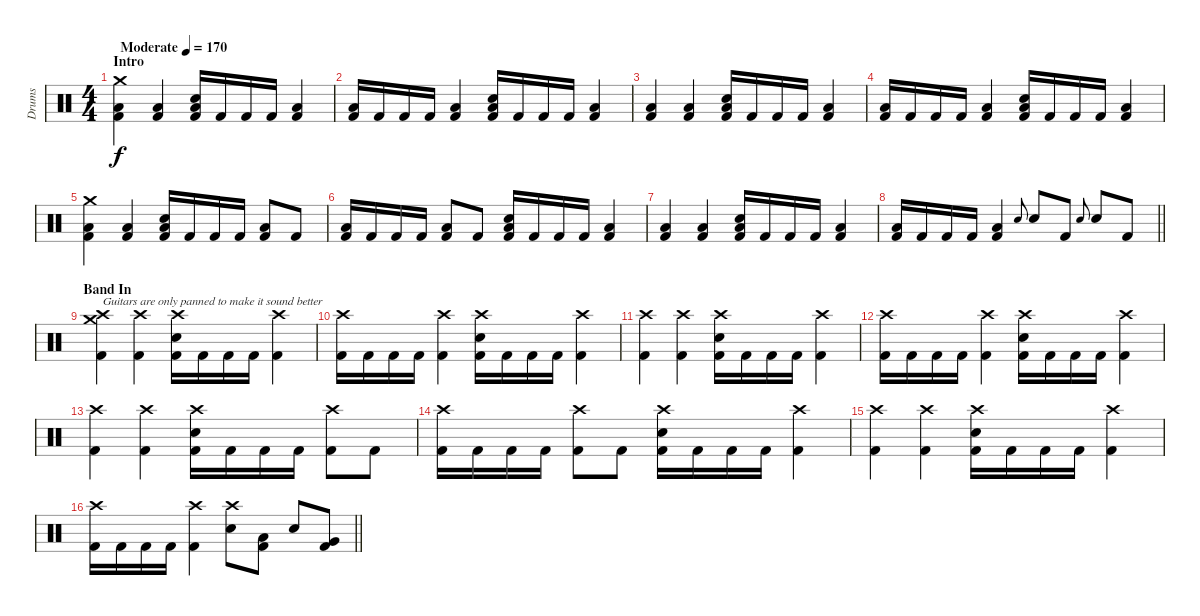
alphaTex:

\track ("Drums" "Drums") {instrument percussion}
\staff {score}
\articulation defaults
\ts (4 4)
\section ("" "Intro")
\tempo (170 "Moderate")
\clef neutral
\ks c
("Crash medium (hit)" "Low Floor Tom (hit)" "Kick (hit) 2").4{dy f} ("Low Floor Tom (hit)" "Kick (hit) 2").4 ("Low Floor Tom (hit)" "Electric Snare (hit)" "Kick (hit) 2").16 "Kick (hit) 2".16 "Kick (hit) 2".16 "Kick (hit) 2".16 ("Low Floor Tom (hit)" "Kick (hit) 2").4 |
("Low Floor Tom (hit)" "Kick (hit) 2").16 "Kick (hit) 2".16 "Kick (hit) 2".16 "Kick (hit) 2".16 ("Low Floor Tom (hit)" "Kick (hit) 2").4 ("Low Floor Tom (hit)" "Electric Snare (hit)" "Kick (hit) 2").16 "Kick (hit) 2".16 "Kick (hit) 2".16 "Kick (hit) 2".16 ("Low Floor Tom (hit)" "Kick (hit) 2").4 |
("Low Floor Tom (hit)" "Kick (hit) 2").4 ("Low Floor Tom (hit)" "Kick (hit) 2").4 ("Low Floor Tom (hit)" "Electric Snare (hit)" "Kick (hit) 2").16 "Kick (hit) 2".16 "Kick (hit) 2".16 "Kick (hit) 2".16 ("Low Floor Tom (hit)" "Kick (hit) 2").4 |
("Low Floor Tom (hit)" "Kick (hit) 2").16 "Kick (hit) 2".16 "Kick (hit) 2".16 "Kick (hit) 2".16 ("Low Floor Tom (hit)" "Kick (hit) 2").4 ("Low Floor Tom (hit)" "Electric Snare (hit)" "Kick (hit) 2").16 "Kick (hit) 2".16 "Kick (hit) 2".16 "Kick (hit) 2".16 ("Low Floor Tom (hit)" "Kick (hit) 2").4 |
("Crash medium (hit)" "Low Floor Tom (hit)" "Kick (hit) 2").4 ("Low Floor Tom (hit)" "Kick (hit) 2").4 ("Low Floor Tom (hit)" "Electric Snare (hit)" "Kick (hit) 2").16 "Kick (hit) 2".16 "Kick (hit) 2".16 "Kick (hit) 2".16 ("Low Floor Tom (hit)" "Kick (hit) 2").8 "Kick (hit) 2".8 |
("Low Floor Tom (hit)" "Kick (hit) 2").16 "Kick (hit) 2".16 "Kick (hit) 2".16 "Kick (hit) 2".16 ("Low Floor Tom (hit)" "Kick (hit) 2").8 "Kick (hit) 2".8 ("Low Floor Tom (hit)" "Electric Snare (hit)" "Kick (hit) 2").16 "Kick (hit) 2".16 "Kick (hit) 2".16 "Kick (hit) 2".16 ("Low Floor Tom (hit)" "Kick (hit) 2").4 |
("Low Floor Tom (hit)" "Kick (hit) 2").4 ("Low Floor Tom (hit)" "Kick (hit) 2").4 ("Low Floor Tom (hit)" "Electric Snare (hit)" "Kick (hit) 2").16 "Kick (hit) 2".16 "Kick (hit) 2".16 "Kick (hit) 2".16 ("Low Floor Tom (hit)" "Kick (hit) 2").4 |
\barLineRight lightlight
("Low Floor Tom (hit)" "Kick (hit) 2").16 "Kick (hit) 2".16 "Kick (hit) 2".16 "Kick (hit) 2".16 ("Low Floor Tom (hit)" "Kick (hit) 2").4 "Electric Snare (hit)".8{gr onbeat} "Electric Snare (hit)".8 "Kick (hit) 2".8 "Electric Snare (hit)".8{gr onbeat} "Electric Snare (hit)".8 "Kick (hit) 2".8 |
\section ("" "Band In")
("Crash high (hit)" "Crash medium (hit)" "Kick (hit) 2").4{txt "Guitars are only panned to make it sound better"} ("Crash high (hit)" "Kick (hit) 2").4 ("Crash high (hit)" "Electric Snare (hit)" "Kick (hit) 2").16 "Kick (hit) 2".16 "Kick (hit) 2".16 "Kick (hit) 2".16 ("Crash high (hit)" "Kick (hit) 2").4 |
("Crash high (hit)" "Kick (hit) 2").16 "Kick (hit) 2".16 "Kick (hit) 2".16 "Kick (hit) 2".16 ("Crash high (hit)" "Kick (hit) 2").4 ("Crash high (hit)" "Electric Snare (hit)" "Kick (hit) 2").16 "Kick (hit) 2".16 "Kick (hit) 2".16 "Kick (hit) 2".16 ("Crash high (hit)" "Kick (hit) 2").4 |
("Crash high (hit)" "Kick (hit) 2").4 ("Crash high (hit)" "Kick (hit) 2").4 ("Crash high (hit)" "Electric Snare (hit)" "Kick (hit) 2").16 "Kick (hit) 2".16 "Kick (hit) 2".16 "Kick (hit) 2".16 ("Crash high (hit)" "Kick (hit) 2").4 |
("Crash high (hit)" "Kick (hit) 2").16 "Kick (hit) 2".16 "Kick (hit) 2".16 "Kick (hit) 2".16 ("Crash high (hit)" "Kick (hit) 2").4 ("Crash high (hit)" "Electric Snare (hit)" "Kick (hit) 2").16 "Kick (hit) 2".16 "Kick (hit) 2".16 "Kick (hit) 2".16 ("Crash high (hit)" "Kick (hit) 2").4 |
("Crash high (hit)" "Kick (hit) 2").4 ("Crash high (hit)" "Kick (hit) 2").4 ("Crash high (hit)" "Electric Snare (hit)" "Kick (hit) 2").16 "Kick (hit) 2".16 "Kick (hit) 2".16 "Kick (hit) 2".16 ("Crash high (hit)" "Kick (hit) 2").8 "Kick (hit) 2".8 |
("Crash high (hit)" "Kick (hit) 2").16 "Kick (hit) 2".16 "Kick (hit) 2".16 "Kick (hit) 2".16 ("Crash high (hit)" "Kick (hit) 2").8 "Kick (hit) 2".8 ("Crash high (hit)" "Electric Snare (hit)" "Kick (hit) 2").16 "Kick (hit) 2".16 "Kick (hit) 2".16 "Kick (hit) 2".16 ("Crash high (hit)" "Kick (hit) 2").4 |
("Crash high (hit)" "Kick (hit) 2").4 ("Crash high (hit)" "Kick (hit) 2").4 ("Crash high (hit)" "Electric Snare (hit)" "Kick (hit) 2").16 "Kick (hit) 2".16 "Kick (hit) 2".16 "Kick (hit) 2".16 ("Crash high (hit)" "Kick (hit) 2").4 |
\barLineRight lightlight
("Crash high (hit)" "Kick (hit) 2").16 "Kick (hit) 2".16 "Kick (hit) 2".16 "Kick (hit) 2".16 ("Crash high (hit)" "Kick (hit) 2").4 ("Crash high (hit)" "Electric Snare (hit)").8 ("Low Tom (hit)" "Kick (hit) 2").8 "Electric Snare (hit)".8 ("Very Low Tom (hit)" "Kick (hit) 2").8
